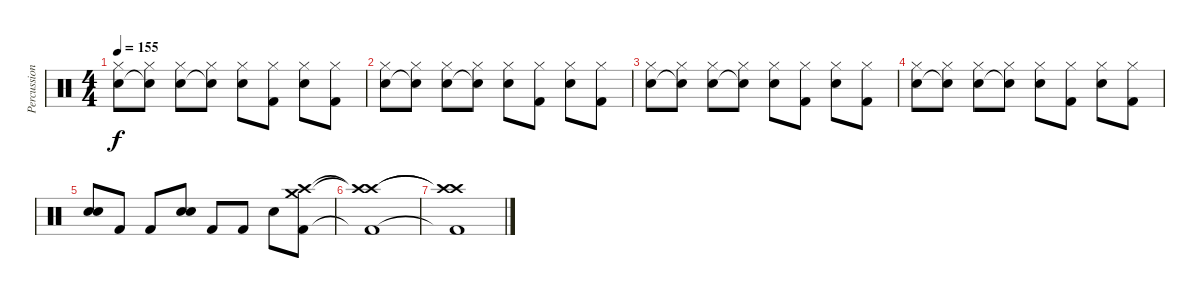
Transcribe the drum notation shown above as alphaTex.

\track ("Percussion" "Percussion") {instrument percussion}
\staff {score}
\articulation defaults
\ts (4 4)
\tempo 155
\clef neutral
\ks c
("Electric Snare (hit)" "Hi-Hat (closed)").8{dy f} ("Electric Snare (hit)"{t} "Hi-Hat (closed)").8 ("Electric Snare (hit)" "Hi-Hat (closed)").8 ("Electric Snare (hit)"{t} "Hi-Hat (closed)").8 ("Electric Snare (hit)" "Hi-Hat (closed)").8 ("Kick (hit) 2" "Hi-Hat (closed)").8 ("Electric Snare (hit)" "Hi-Hat (closed)").8 ("Kick (hit) 2" "Hi-Hat (closed)").8 |
("Electric Snare (hit)" "Hi-Hat (closed)").8 ("Electric Snare (hit)"{t} "Hi-Hat (closed)").8 ("Electric Snare (hit)" "Hi-Hat (closed)").8 ("Electric Snare (hit)"{t} "Hi-Hat (closed)").8 ("Electric Snare (hit)" "Hi-Hat (closed)").8 ("Kick (hit) 2" "Hi-Hat (closed)").8 ("Electric Snare (hit)" "Hi-Hat (closed)").8 ("Kick (hit) 2" "Hi-Hat (closed)").8 |
("Electric Snare (hit)" "Hi-Hat (closed)").8 ("Electric Snare (hit)"{t} "Hi-Hat (closed)").8 ("Electric Snare (hit)" "Hi-Hat (closed)").8 ("Electric Snare (hit)"{t} "Hi-Hat (closed)").8 ("Electric Snare (hit)" "Hi-Hat (closed)").8 ("Kick (hit) 2" "Hi-Hat (closed)").8 ("Electric Snare (hit)" "Hi-Hat (closed)").8 ("Kick (hit) 2" "Hi-Hat (closed)").8 |
("Electric Snare (hit)" "Hi-Hat (closed)").8 ("Electric Snare (hit)"{t} "Hi-Hat (closed)").8 ("Electric Snare (hit)" "Hi-Hat (closed)").8 ("Electric Snare (hit)"{t} "Hi-Hat (closed)").8 ("Electric Snare (hit)" "Hi-Hat (closed)").8 ("Kick (hit) 2" "Hi-Hat (closed)").8 ("Electric Snare (hit)" "Hi-Hat (closed)").8 ("Kick (hit) 2" "Hi-Hat (closed)").8 |
("Electric Snare (hit)" "Electric Snare (hit)").8 "Kick (hit) 2".8 "Kick (hit) 2".8 ("Electric Snare (hit)" "Electric Snare (hit)").8 "Kick (hit) 2".8 "Kick (hit) 2".8 "Electric Snare (hit)".8 ("Crash high (hit)" "Kick (hit) 2" "Crash medium (hit)").8 |
("Crash high (hit)"{t} "Kick (hit) 2"{t} "Crash high (hit)"{t}).1 |
("Crash high (hit)"{t} "Kick (hit) 2"{t} "Crash high (hit)"{t}).1
